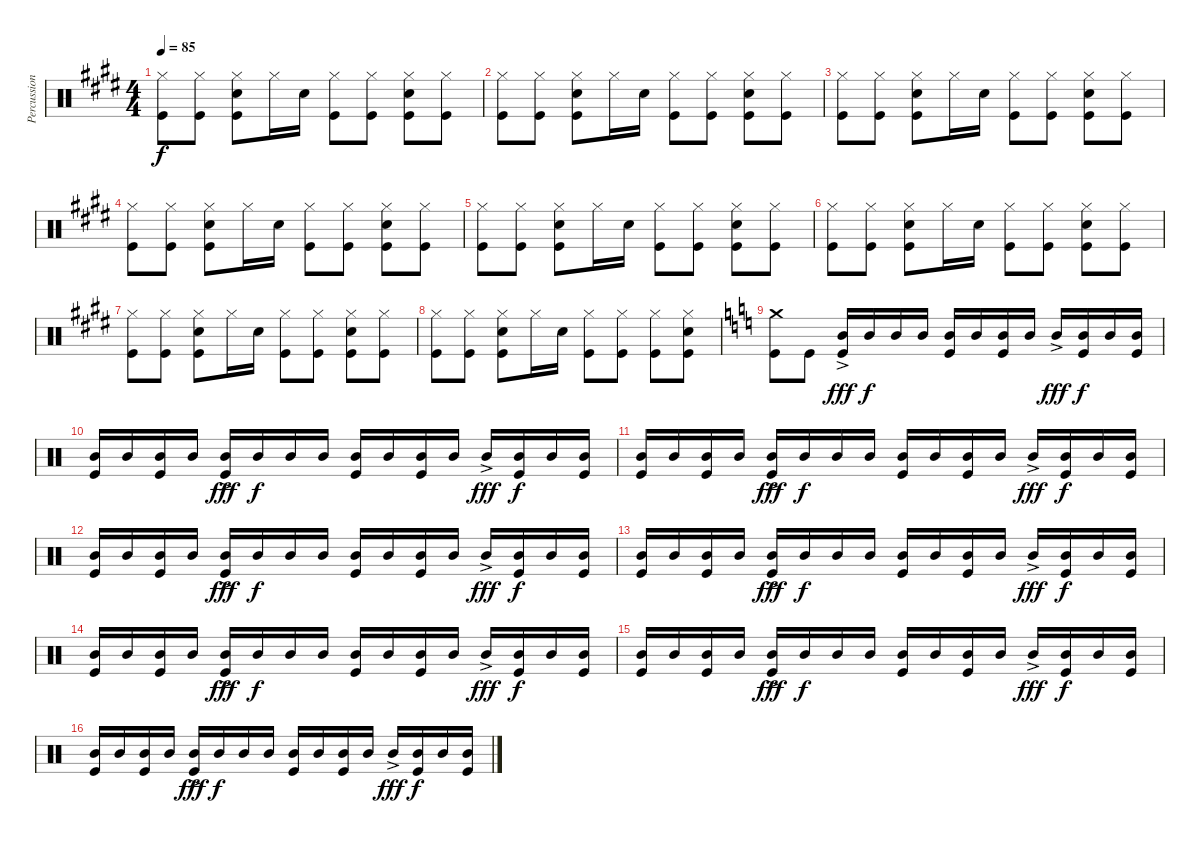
\track ("Percussion" "Percussion") {instrument percussion}
\staff {score}
\articulation defaults
\ts (4 4)
\tempo 85
\clef neutral
\ks e
("Hi-Hat (closed)" "Kick (hit)").8{dy f} ("Hi-Hat (closed)" "Kick (hit)").8 ("Hi-Hat (closed)" "Snare (hit) 2" "Kick (hit)").8 "Hi-Hat (closed)".16 "Snare (hit) 2".16 ("Hi-Hat (closed)" "Kick (hit)").8 ("Hi-Hat (closed)" "Kick (hit)").8 ("Hi-Hat (closed)" "Snare (hit) 2" "Kick (hit)").8 ("Hi-Hat (closed)" "Kick (hit)").8 |
("Hi-Hat (closed)" "Kick (hit)").8 ("Hi-Hat (closed)" "Kick (hit)").8 ("Hi-Hat (closed)" "Snare (hit) 2" "Kick (hit)").8 "Hi-Hat (closed)".16 "Snare (hit) 2".16 ("Hi-Hat (closed)" "Kick (hit)").8 ("Hi-Hat (closed)" "Kick (hit)").8 ("Hi-Hat (closed)" "Snare (hit) 2" "Kick (hit)").8 ("Hi-Hat (closed)" "Kick (hit)").8 |
("Hi-Hat (closed)" "Kick (hit)").8 ("Hi-Hat (closed)" "Kick (hit)").8 ("Hi-Hat (closed)" "Snare (hit) 2" "Kick (hit)").8 "Hi-Hat (closed)".16 "Snare (hit) 2".16 ("Hi-Hat (closed)" "Kick (hit)").8 ("Hi-Hat (closed)" "Kick (hit)").8 ("Hi-Hat (closed)" "Snare (hit) 2" "Kick (hit)").8 ("Hi-Hat (closed)" "Kick (hit)").8 |
("Hi-Hat (closed)" "Kick (hit)").8 ("Hi-Hat (closed)" "Kick (hit)").8 ("Hi-Hat (closed)" "Snare (hit) 2" "Kick (hit)").8 "Hi-Hat (closed)".16 "Snare (hit) 2".16 ("Hi-Hat (closed)" "Kick (hit)").8 ("Hi-Hat (closed)" "Kick (hit)").8 ("Hi-Hat (closed)" "Snare (hit) 2" "Kick (hit)").8 ("Hi-Hat (closed)" "Kick (hit)").8 |
("Hi-Hat (closed)" "Kick (hit)").8 ("Hi-Hat (closed)" "Kick (hit)").8 ("Hi-Hat (closed)" "Snare (hit) 2" "Kick (hit)").8 "Hi-Hat (closed)".16 "Snare (hit) 2".16 ("Hi-Hat (closed)" "Kick (hit)").8 ("Hi-Hat (closed)" "Kick (hit)").8 ("Hi-Hat (closed)" "Snare (hit) 2" "Kick (hit)").8 ("Hi-Hat (closed)" "Kick (hit)").8 |
("Hi-Hat (closed)" "Kick (hit)").8 ("Hi-Hat (closed)" "Kick (hit)").8 ("Hi-Hat (closed)" "Snare (hit) 2" "Kick (hit)").8 "Hi-Hat (closed)".16 "Snare (hit) 2".16 ("Hi-Hat (closed)" "Kick (hit)").8 ("Hi-Hat (closed)" "Kick (hit)").8 ("Hi-Hat (closed)" "Snare (hit) 2" "Kick (hit)").8 ("Hi-Hat (closed)" "Kick (hit)").8 |
("Hi-Hat (closed)" "Kick (hit)").8 ("Hi-Hat (closed)" "Kick (hit)").8 ("Hi-Hat (closed)" "Snare (hit) 2" "Kick (hit)").8 "Hi-Hat (closed)".16 "Snare (hit) 2".16 ("Hi-Hat (closed)" "Kick (hit)").8 ("Hi-Hat (closed)" "Kick (hit)").8 ("Hi-Hat (closed)" "Snare (hit) 2" "Kick (hit)").8 ("Hi-Hat (closed)" "Kick (hit)").8 |
("Hi-Hat (closed)" "Kick (hit)").8 ("Hi-Hat (closed)" "Kick (hit)").8 ("Hi-Hat (closed)" "Snare (hit) 2" "Kick (hit)").8 "Hi-Hat (closed)".16 "Snare (hit) 2".16 ("Hi-Hat (closed)" "Kick (hit)").8 ("Hi-Hat (closed)" "Kick (hit)").8 ("Hi-Hat (closed)" "Kick (hit)").8 ("Hi-Hat (closed)" "Snare (hit) 2" "Kick (hit)").8 |
\ks c
("Crash medium (hit)" "Kick (hit)").8 "Kick (hit)".8 ("Mid Tom (hit)"{ac} "Kick (hit)").16{dy fff} "Mid Tom (hit)".16{dy f} "Mid Tom (hit)".16 "Mid Tom (hit)".16 ("Mid Tom (hit)" "Kick (hit)").16 "Mid Tom (hit)".16 ("Mid Tom (hit)" "Kick (hit)").16 "Mid Tom (hit)".16 "Mid Tom (hit)"{ac}.16{dy fff} ("Mid Tom (hit)" "Kick (hit)").16{dy f} "Mid Tom (hit)".16 ("Mid Tom (hit)" "Kick (hit)").16 |
("Mid Tom (hit)" "Kick (hit)").16 "Mid Tom (hit)".16 ("Mid Tom (hit)" "Kick (hit)").16 "Mid Tom (hit)".16 ("Mid Tom (hit)"{ac} "Kick (hit)").16{dy fff} "Mid Tom (hit)".16{dy f} "Mid Tom (hit)".16 "Mid Tom (hit)".16 ("Mid Tom (hit)" "Kick (hit)").16 "Mid Tom (hit)".16 ("Mid Tom (hit)" "Kick (hit)").16 "Mid Tom (hit)".16 "Mid Tom (hit)"{ac}.16{dy fff} ("Mid Tom (hit)" "Kick (hit)").16{dy f} "Mid Tom (hit)".16 ("Mid Tom (hit)" "Kick (hit)").16 |
("Mid Tom (hit)" "Kick (hit)").16 "Mid Tom (hit)".16 ("Mid Tom (hit)" "Kick (hit)").16 "Mid Tom (hit)".16 ("Mid Tom (hit)"{ac} "Kick (hit)").16{dy fff} "Mid Tom (hit)".16{dy f} "Mid Tom (hit)".16 "Mid Tom (hit)".16 ("Mid Tom (hit)" "Kick (hit)").16 "Mid Tom (hit)".16 ("Mid Tom (hit)" "Kick (hit)").16 "Mid Tom (hit)".16 "Mid Tom (hit)"{ac}.16{dy fff} ("Mid Tom (hit)" "Kick (hit)").16{dy f} "Mid Tom (hit)".16 ("Mid Tom (hit)" "Kick (hit)").16 |
("Mid Tom (hit)" "Kick (hit)").16 "Mid Tom (hit)".16 ("Mid Tom (hit)" "Kick (hit)").16 "Mid Tom (hit)".16 ("Mid Tom (hit)"{ac} "Kick (hit)").16{dy fff} "Mid Tom (hit)".16{dy f} "Mid Tom (hit)".16 "Mid Tom (hit)".16 ("Mid Tom (hit)" "Kick (hit)").16 "Mid Tom (hit)".16 ("Mid Tom (hit)" "Kick (hit)").16 "Mid Tom (hit)".16 "Mid Tom (hit)"{ac}.16{dy fff} ("Mid Tom (hit)" "Kick (hit)").16{dy f} "Mid Tom (hit)".16 ("Mid Tom (hit)" "Kick (hit)").16 |
("Mid Tom (hit)" "Kick (hit)").16 "Mid Tom (hit)".16 ("Mid Tom (hit)" "Kick (hit)").16 "Mid Tom (hit)".16 ("Mid Tom (hit)"{ac} "Kick (hit)").16{dy fff} "Mid Tom (hit)".16{dy f} "Mid Tom (hit)".16 "Mid Tom (hit)".16 ("Mid Tom (hit)" "Kick (hit)").16 "Mid Tom (hit)".16 ("Mid Tom (hit)" "Kick (hit)").16 "Mid Tom (hit)".16 "Mid Tom (hit)"{ac}.16{dy fff} ("Mid Tom (hit)" "Kick (hit)").16{dy f} "Mid Tom (hit)".16 ("Mid Tom (hit)" "Kick (hit)").16 |
("Mid Tom (hit)" "Kick (hit)").16 "Mid Tom (hit)".16 ("Mid Tom (hit)" "Kick (hit)").16 "Mid Tom (hit)".16 ("Mid Tom (hit)"{ac} "Kick (hit)").16{dy fff} "Mid Tom (hit)".16{dy f} "Mid Tom (hit)".16 "Mid Tom (hit)".16 ("Mid Tom (hit)" "Kick (hit)").16 "Mid Tom (hit)".16 ("Mid Tom (hit)" "Kick (hit)").16 "Mid Tom (hit)".16 "Mid Tom (hit)"{ac}.16{dy fff} ("Mid Tom (hit)" "Kick (hit)").16{dy f} "Mid Tom (hit)".16 ("Mid Tom (hit)" "Kick (hit)").16 |
("Mid Tom (hit)" "Kick (hit)").16 "Mid Tom (hit)".16 ("Mid Tom (hit)" "Kick (hit)").16 "Mid Tom (hit)".16 ("Mid Tom (hit)"{ac} "Kick (hit)").16{dy fff} "Mid Tom (hit)".16{dy f} "Mid Tom (hit)".16 "Mid Tom (hit)".16 ("Mid Tom (hit)" "Kick (hit)").16 "Mid Tom (hit)".16 ("Mid Tom (hit)" "Kick (hit)").16 "Mid Tom (hit)".16 "Mid Tom (hit)"{ac}.16{dy fff} ("Mid Tom (hit)" "Kick (hit)").16{dy f} "Mid Tom (hit)".16 ("Mid Tom (hit)" "Kick (hit)").16 |
("Mid Tom (hit)" "Kick (hit)").16 "Mid Tom (hit)".16 ("Mid Tom (hit)" "Kick (hit)").16 "Mid Tom (hit)".16 ("Mid Tom (hit)"{ac} "Kick (hit)").16{dy fff} "Mid Tom (hit)".16{dy f} "Mid Tom (hit)".16 "Mid Tom (hit)".16 ("Mid Tom (hit)" "Kick (hit)").16 "Mid Tom (hit)".16 ("Mid Tom (hit)" "Kick (hit)").16 "Mid Tom (hit)".16 "Mid Tom (hit)"{ac}.16{dy fff} ("Mid Tom (hit)" "Kick (hit)").16{dy f} "Mid Tom (hit)".16 ("Mid Tom (hit)" "Kick (hit)").16
